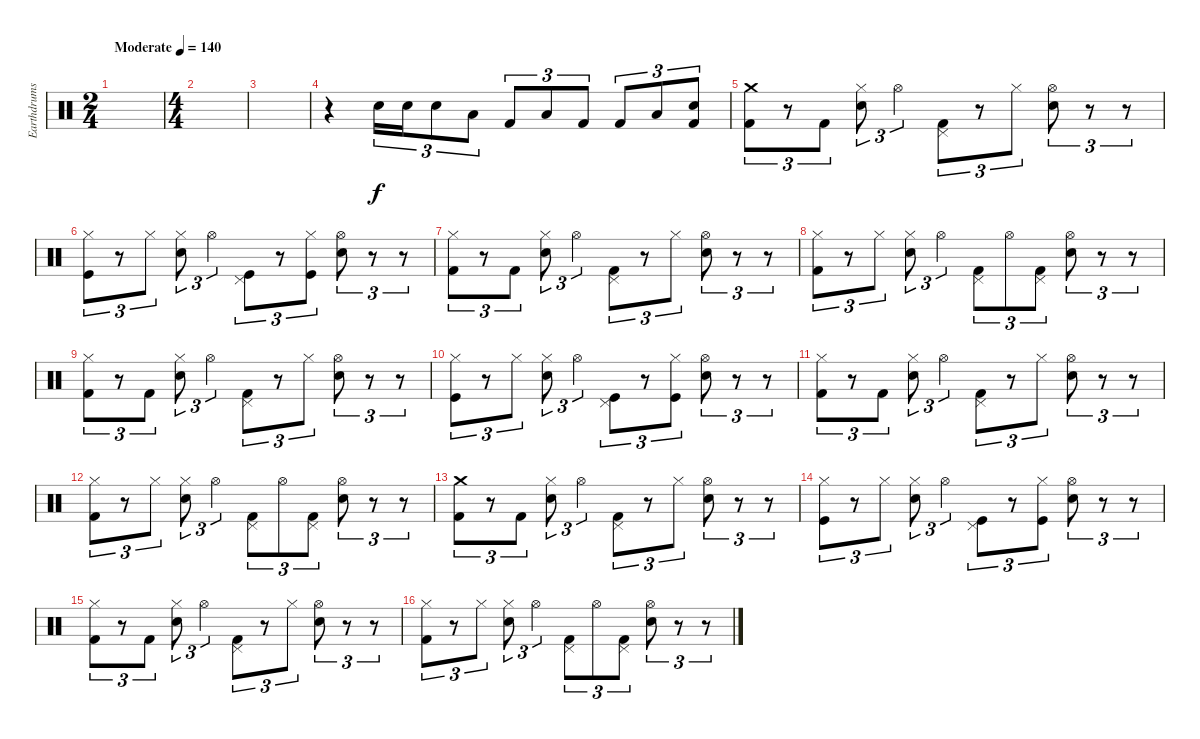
\track ("Earthdrums" "Earthdrums") {instrument percussion}
\staff {score}
\articulation defaults
\ts (2 4)
\tempo (140 "Moderate")
\clef neutral
\ks c
|
\ts (4 4)
|
|
r.4 "Snare (hit) 2".16{tu (3 2)} "Snare (hit) 2".16{tu (3 2)} "Snare (hit) 2".8{tu (3 2)} "Low Tom (hit)".8{tu (3 2)} "Kick (hit) 2".8{tu (3 2)} "Low Tom (hit)".8{tu (3 2)} "Kick (hit) 2".8{tu (3 2)} "Kick (hit) 2".8{tu (3 2)} "Low Tom (hit)".8{tu (3 2)} ("Snare (hit) 2" "Kick (hit) 2").8{tu (3 2)} |
("Crash medium (hit)" "Kick (hit) 2").8{tu (3 2)} r.8{tu (3 2)} "Kick (hit) 2".8{tu (3 2)} ("Hi-Hat (closed)" "Snare (hit) 2").8{tu (3 2)} "Hi-Hat (open)".4{tu (3 2)} ("Pedal Hi-Hat (hit)" "Kick (hit) 2").8{tu (3 2)} r.8{tu (3 2)} "Hi-Hat (closed)".8{tu (3 2)} ("Hi-Hat (open)" "Snare (hit) 2").8{tu (3 2)} r.8{tu (3 2)} r.8{tu (3 2)} |
("Hi-Hat (closed)" "Kick (hit)").8{tu (3 2)} r.8{tu (3 2)} "Hi-Hat (closed)".8{tu (3 2)} ("Hi-Hat (closed)" "Snare (hit) 2").8{tu (3 2)} "Hi-Hat (open)".4{tu (3 2)} ("Pedal Hi-Hat (hit)" "Kick (hit)").8{tu (3 2)} r.8{tu (3 2)} ("Hi-Hat (closed)" "Kick (hit)").8{tu (3 2)} ("Hi-Hat (open)" "Snare (hit) 2").8{tu (3 2)} r.8{tu (3 2)} r.8{tu (3 2)} |
("Hi-Hat (closed)" "Kick (hit) 2").8{tu (3 2)} r.8{tu (3 2)} "Kick (hit) 2".8{tu (3 2)} ("Hi-Hat (closed)" "Snare (hit) 2").8{tu (3 2)} "Hi-Hat (open)".4{tu (3 2)} ("Pedal Hi-Hat (hit)" "Kick (hit) 2").8{tu (3 2)} r.8{tu (3 2)} "Hi-Hat (closed)".8{tu (3 2)} ("Hi-Hat (open)" "Snare (hit) 2").8{tu (3 2)} r.8{tu (3 2)} r.8{tu (3 2)} |
("Hi-Hat (closed)" "Kick (hit) 2").8{tu (3 2)} r.8{tu (3 2)} "Hi-Hat (closed)".8{tu (3 2)} ("Hi-Hat (closed)" "Snare (hit) 2").8{tu (3 2)} "Hi-Hat (open)".4{tu (3 2)} ("Pedal Hi-Hat (hit)" "Kick (hit) 2").8{tu (3 2)} "Hi-Hat (open)".8{tu (3 2)} ("Pedal Hi-Hat (hit)" "Kick (hit) 2").8{tu (3 2)} ("Hi-Hat (open)" "Snare (hit) 2").8{tu (3 2)} r.8{tu (3 2)} r.8{tu (3 2)} |
("Hi-Hat (closed)" "Kick (hit) 2").8{tu (3 2)} r.8{tu (3 2)} "Kick (hit) 2".8{tu (3 2)} ("Hi-Hat (closed)" "Snare (hit) 2").8{tu (3 2)} "Hi-Hat (open)".4{tu (3 2)} ("Pedal Hi-Hat (hit)" "Kick (hit) 2").8{tu (3 2)} r.8{tu (3 2)} "Hi-Hat (closed)".8{tu (3 2)} ("Hi-Hat (open)" "Snare (hit) 2").8{tu (3 2)} r.8{tu (3 2)} r.8{tu (3 2)} |
("Hi-Hat (closed)" "Kick (hit)").8{tu (3 2)} r.8{tu (3 2)} "Hi-Hat (closed)".8{tu (3 2)} ("Hi-Hat (closed)" "Snare (hit) 2").8{tu (3 2)} "Hi-Hat (open)".4{tu (3 2)} ("Pedal Hi-Hat (hit)" "Kick (hit)").8{tu (3 2)} r.8{tu (3 2)} ("Hi-Hat (closed)" "Kick (hit)").8{tu (3 2)} ("Hi-Hat (open)" "Snare (hit) 2").8{tu (3 2)} r.8{tu (3 2)} r.8{tu (3 2)} |
("Hi-Hat (closed)" "Kick (hit) 2").8{tu (3 2)} r.8{tu (3 2)} "Kick (hit) 2".8{tu (3 2)} ("Hi-Hat (closed)" "Snare (hit) 2").8{tu (3 2)} "Hi-Hat (open)".4{tu (3 2)} ("Pedal Hi-Hat (hit)" "Kick (hit) 2").8{tu (3 2)} r.8{tu (3 2)} "Hi-Hat (closed)".8{tu (3 2)} ("Hi-Hat (open)" "Snare (hit) 2").8{tu (3 2)} r.8{tu (3 2)} r.8{tu (3 2)} |
("Hi-Hat (closed)" "Kick (hit) 2").8{tu (3 2)} r.8{tu (3 2)} "Hi-Hat (closed)".8{tu (3 2)} ("Hi-Hat (closed)" "Snare (hit) 2").8{tu (3 2)} "Hi-Hat (open)".4{tu (3 2)} ("Pedal Hi-Hat (hit)" "Kick (hit) 2").8{tu (3 2)} "Hi-Hat (open)".8{tu (3 2)} ("Pedal Hi-Hat (hit)" "Kick (hit) 2").8{tu (3 2)} ("Hi-Hat (open)" "Snare (hit) 2").8{tu (3 2)} r.8{tu (3 2)} r.8{tu (3 2)} |
("Crash medium (hit)" "Kick (hit) 2").8{tu (3 2)} r.8{tu (3 2)} "Kick (hit) 2".8{tu (3 2)} ("Hi-Hat (closed)" "Snare (hit) 2").8{tu (3 2)} "Hi-Hat (open)".4{tu (3 2)} ("Pedal Hi-Hat (hit)" "Kick (hit) 2").8{tu (3 2)} r.8{tu (3 2)} "Hi-Hat (closed)".8{tu (3 2)} ("Hi-Hat (open)" "Snare (hit) 2").8{tu (3 2)} r.8{tu (3 2)} r.8{tu (3 2)} |
("Hi-Hat (closed)" "Kick (hit)").8{tu (3 2)} r.8{tu (3 2)} "Hi-Hat (closed)".8{tu (3 2)} ("Hi-Hat (closed)" "Snare (hit) 2").8{tu (3 2)} "Hi-Hat (open)".4{tu (3 2)} ("Pedal Hi-Hat (hit)" "Kick (hit)").8{tu (3 2)} r.8{tu (3 2)} ("Hi-Hat (closed)" "Kick (hit)").8{tu (3 2)} ("Hi-Hat (open)" "Snare (hit) 2").8{tu (3 2)} r.8{tu (3 2)} r.8{tu (3 2)} |
("Hi-Hat (closed)" "Kick (hit) 2").8{tu (3 2)} r.8{tu (3 2)} "Kick (hit) 2".8{tu (3 2)} ("Hi-Hat (closed)" "Snare (hit) 2").8{tu (3 2)} "Hi-Hat (open)".4{tu (3 2)} ("Pedal Hi-Hat (hit)" "Kick (hit) 2").8{tu (3 2)} r.8{tu (3 2)} "Hi-Hat (closed)".8{tu (3 2)} ("Hi-Hat (open)" "Snare (hit) 2").8{tu (3 2)} r.8{tu (3 2)} r.8{tu (3 2)} |
("Hi-Hat (closed)" "Kick (hit) 2").8{tu (3 2)} r.8{tu (3 2)} "Hi-Hat (closed)".8{tu (3 2)} ("Hi-Hat (closed)" "Snare (hit) 2").8{tu (3 2)} "Hi-Hat (open)".4{tu (3 2)} ("Pedal Hi-Hat (hit)" "Kick (hit) 2").8{tu (3 2)} "Hi-Hat (open)".8{tu (3 2)} ("Pedal Hi-Hat (hit)" "Kick (hit) 2").8{tu (3 2)} ("Hi-Hat (open)" "Snare (hit) 2").8{tu (3 2)} r.8{tu (3 2)} r.8{tu (3 2)}
